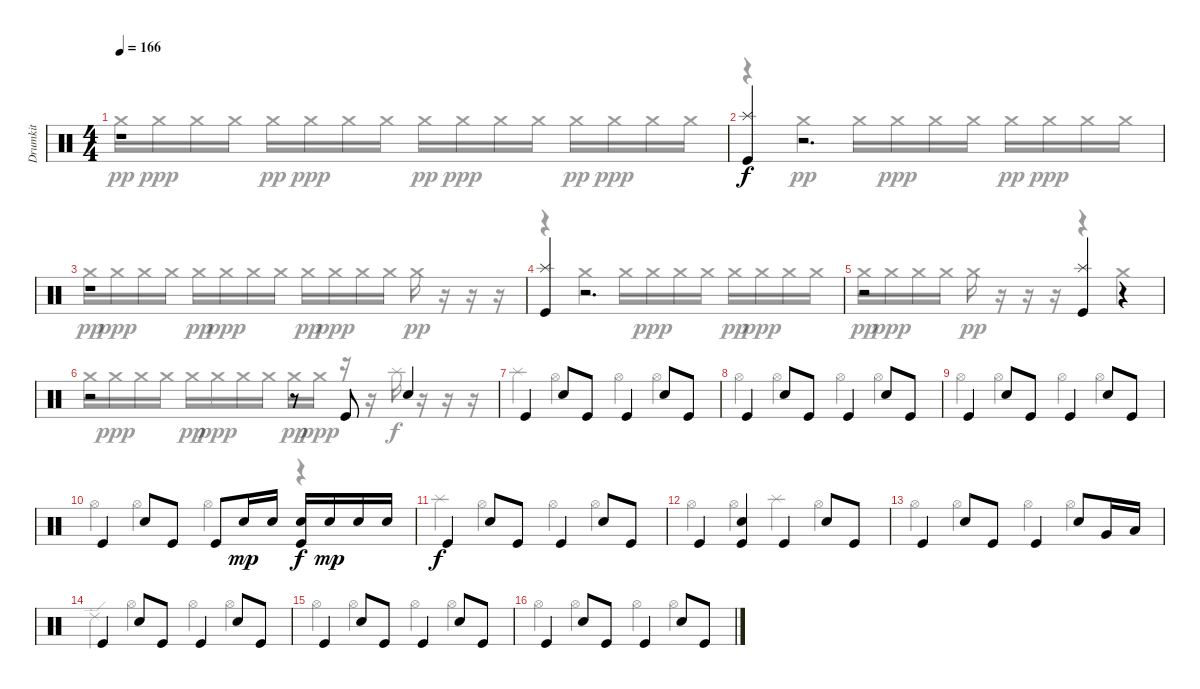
\track ("Drumkit" "Drumkit") {instrument percussion}
\staff {score}
\articulation defaults
\voice
\ts (4 4)
\tempo 166
\clef neutral
\ks c
r.1{dy f} |
("Kick (hit)" "Splash (hit)").4 r.2{d} |
r.1 |
("Splash (hit)" "Kick (hit)").4 r.2{d} |
r.2 ("Splash (hit)" "Kick (hit)").4 r.4 |
r.2 r.8 "Kick (hit)".8 "Snare (hit) 2".4 |
"Kick (hit)".4 "Snare (hit) 2".8 "Kick (hit)".8 "Kick (hit)".4 "Snare (hit) 2".8 "Kick (hit)".8 |
"Kick (hit)".4 "Snare (hit) 2".8 "Kick (hit)".8 "Kick (hit)".4 "Snare (hit) 2".8 "Kick (hit)".8 |
"Kick (hit)".4 "Snare (hit) 2".8 "Kick (hit)".8 "Kick (hit)".4 "Snare (hit) 2".8 "Kick (hit)".8 |
"Kick (hit)".4 "Snare (hit) 2".8 "Kick (hit)".8 "Kick (hit)".8 "Snare (hit) 2".16{dy mp} "Snare (hit) 2".16 ("Snare (hit) 2" "Kick (hit)").16{dy f} "Snare (hit) 2".16{dy mp} "Snare (hit) 2".16 "Snare (hit) 2".16 |
"Kick (hit)".4{dy f} "Snare (hit) 2".8 "Kick (hit)".8 "Kick (hit)".4 "Snare (hit) 2".8 "Kick (hit)".8 |
"Kick (hit)".4 ("Kick (hit)" "Snare (hit) 2").4 "Kick (hit)".4 "Snare (hit) 2".8 "Kick (hit)".8 |
"Kick (hit)".4 "Snare (hit) 2".8 "Kick (hit)".8 "Kick (hit)".4 "Snare (hit) 2".8 "Very Low Tom (hit)".16 "Low Floor Tom (hit)".16 |
"Kick (hit)".4 "Snare (hit) 2".8 "Kick (hit)".8 "Kick (hit)".4 "Snare (hit) 2".8 "Kick (hit)".8 |
"Kick (hit)".4 "Snare (hit) 2".8 "Kick (hit)".8 "Kick (hit)".4 "Snare (hit) 2".8 "Kick (hit)".8 |
"Kick (hit)".4 "Snare (hit) 2".8 "Kick (hit)".8 "Kick (hit)".4 "Snare (hit) 2".8 "Kick (hit)".8
\voice
\clef neutral
\ottava regular
\simile none
\ks c "Crash medium (hit)".16{dy pp} "Crash medium (hit)".16{dy ppp} "Crash medium (hit)".16 "Crash medium (hit)".16 "Crash medium (hit)".16{dy pp} "Crash medium (hit)".16{dy ppp} "Crash medium (hit)".16 "Crash medium (hit)".16 "Crash medium (hit)".16{dy pp} "Crash medium (hit)".16{dy ppp} "Crash medium (hit)".16 "Crash medium (hit)".16 "Crash medium (hit)".16{dy pp} "Crash medium (hit)".16{dy ppp} "Crash medium (hit)".16 "Crash medium (hit)".16
|
r.4 "Crash medium (hit)".4{dy pp} "Crash medium (hit)".16 "Crash medium (hit)".16{dy ppp} "Crash medium (hit)".16 "Crash medium (hit)".16 "Crash medium (hit)".16{dy pp} "Crash medium (hit)".16{dy ppp} "Crash medium (hit)".16 "Crash medium (hit)".16 |
"Crash medium (hit)".16{dy pp} "Crash medium (hit)".16{dy ppp} "Crash medium (hit)".16 "Crash medium (hit)".16 "Crash medium (hit)".16{dy pp} "Crash medium (hit)".16{dy ppp} "Crash medium (hit)".16 "Crash medium (hit)".16 "Crash medium (hit)".16{dy pp} "Crash medium (hit)".16{dy ppp} "Crash medium (hit)".16 "Crash medium (hit)".16 "Crash medium (hit)".16{dy pp} r.16 r.16 r.16 |
r.4 "Crash medium (hit)".4 "Crash medium (hit)".16 "Crash medium (hit)".16{dy ppp} "Crash medium (hit)".16 "Crash medium (hit)".16 "Crash medium (hit)".16{dy pp} "Crash medium (hit)".16{dy ppp} "Crash medium (hit)".16 "Crash medium (hit)".16 |
"Crash medium (hit)".16{dy pp} "Crash medium (hit)".16{dy ppp} "Crash medium (hit)".16 "Crash medium (hit)".16 "Crash medium (hit)".16{dy pp} r.16 r.16 r.16 r.4 "Crash medium (hit)".4 |
"Crash medium (hit)".16 "Crash medium (hit)".16{dy ppp} "Crash medium (hit)".16 "Crash medium (hit)".16 "Crash medium (hit)".16{dy pp} "Crash medium (hit)".16{dy ppp} "Crash medium (hit)".16 "Crash medium (hit)".16 "Crash medium (hit)".16{dy pp} "Crash medium (hit)".16{dy ppp} r.16 r.16 "Splash (hit)".16{dy f} r.16 r.16 r.16 |
"Splash (hit)".4 "Hi-Hat (open)".4 "Hi-Hat (open)".4 "Hi-Hat (open)".4 |
"Hi-Hat (open)".4 "Hi-Hat (open)".4 "Hi-Hat (open)".4 "Hi-Hat (open)".4 |
"Hi-Hat (open)".4 "Hi-Hat (open)".4 "Hi-Hat (open)".4 "Hi-Hat (open)".4 |
"Hi-Hat (open)".4 "Hi-Hat (open)".4 "Hi-Hat (open)".4 r.4 |
"Splash (hit)".4 "Hi-Hat (open)".4 "Hi-Hat (open)".4 "Hi-Hat (open)".4 |
"Hi-Hat (open)".4 "Hi-Hat (open)".4 "Splash (hit)".4 "Hi-Hat (open)".4 |
"Hi-Hat (open)".4 "Hi-Hat (open)".4 "Hi-Hat (open)".4 "Hi-Hat (open)".4 |
"Ride (edge) 2".4 "Hi-Hat (open)".4 "Hi-Hat (open)".4 "Hi-Hat (open)".4 |
"Hi-Hat (open)".4 "Hi-Hat (open)".4 "Hi-Hat (open)".4 "Hi-Hat (open)".4 |
"Hi-Hat (open)".4 "Hi-Hat (open)".4 "Hi-Hat (open)".4 "Hi-Hat (open)".4
